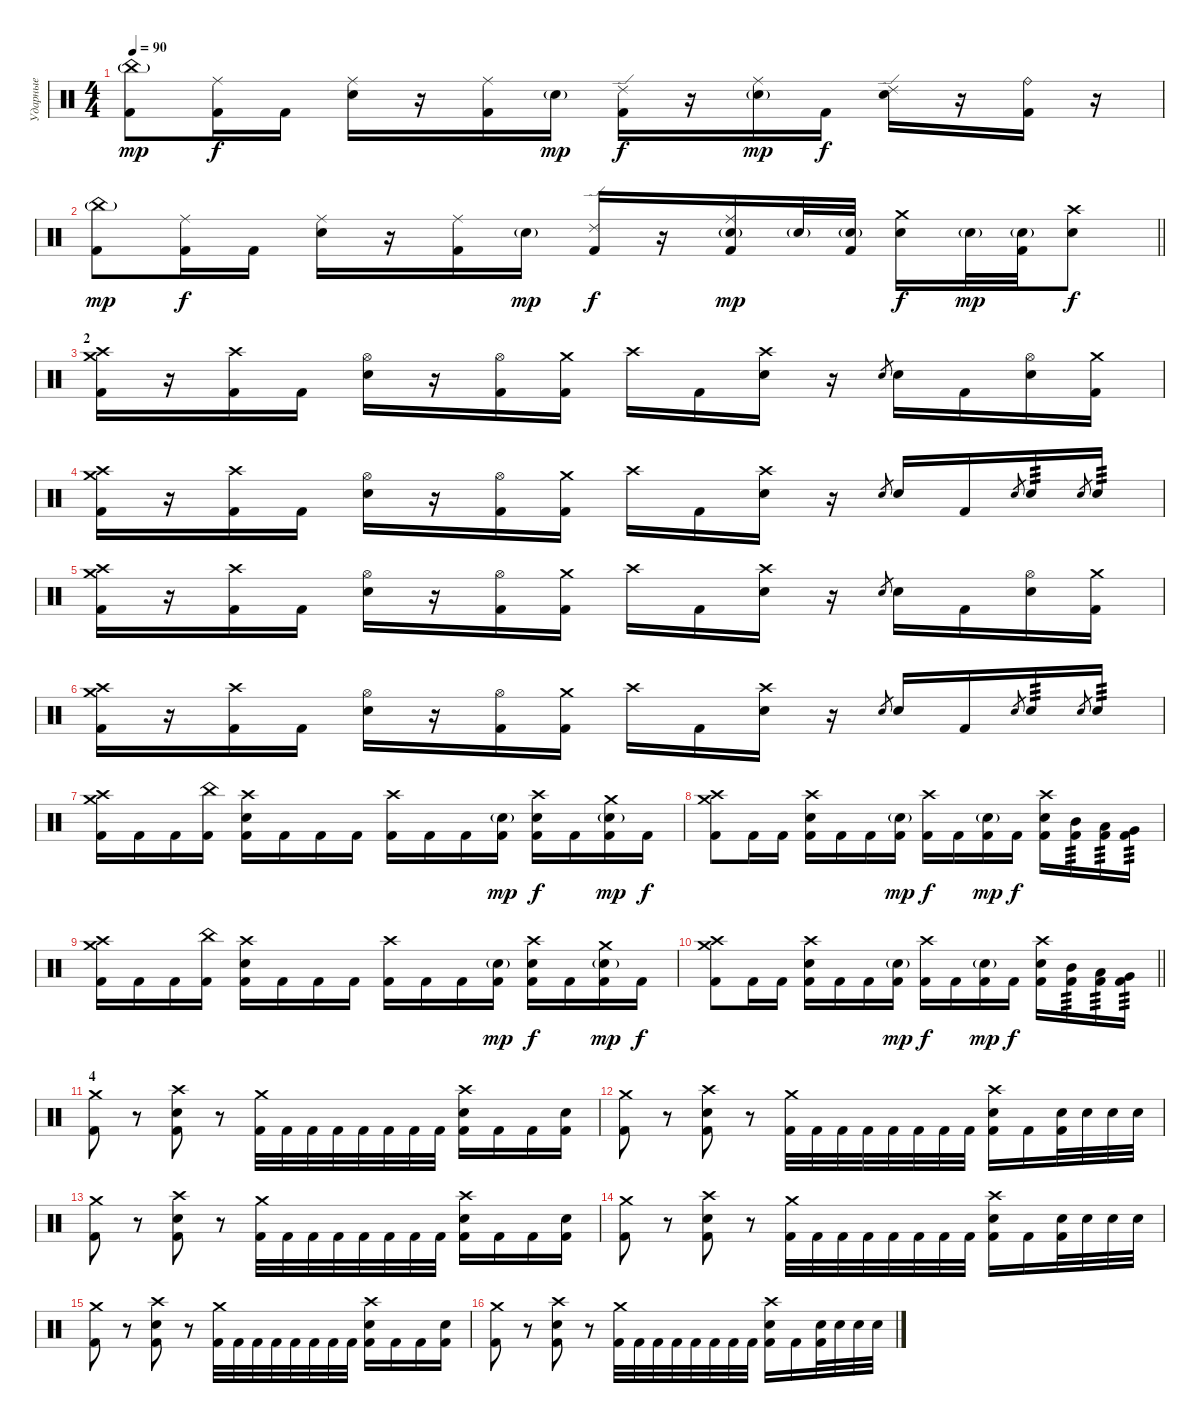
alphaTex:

\track ("Ударные" "Ударные") {instrument percussion}
\staff {score}
\articulation defaults
\ts (4 4)
\tempo 90
\clef neutral
\ks c
("China (hit)"{g} "Kick (hit) 2").8{dy mp} ("Ride (middle)" "Kick (hit) 2").16{dy f} "Kick (hit) 2".16 ("Ride (middle)" "Electric Snare (hit)").16 r.16 ("Kick (hit) 2" "Ride (middle)").16 "Electric Snare (hit)"{g}.16{dy mp} ("Kick (hit) 2" "Ride (edge) 2").16{dy f} r.16 ("Ride (middle)" "Electric Snare (hit)"{g}).16{dy mp} "Kick (hit) 2".16{dy f} ("Electric Snare (hit)" "Ride (edge) 2").16 r.16 ("Kick (hit) 2" "Ride (bell)").16 r.16 |
\barLineRight lightlight
("China (hit)"{g} "Kick (hit) 2").8{dy mp} ("Ride (middle)" "Kick (hit) 2").16{dy f} "Kick (hit) 2".16 ("Ride (middle)" "Electric Snare (hit)").16 r.16 ("Kick (hit) 2" "Ride (middle)").16 "Electric Snare (hit)"{g}.16{dy mp} ("Kick (hit) 2" "Ride (edge) 2").16{dy f} r.16 ("Ride (middle)" "Electric Snare (hit)"{g} "Kick (hit) 2").16{dy mp} "Electric Snare (hit)"{g}.32 ("Electric Snare (hit)"{g} "Kick (hit) 2").32 ("Electric Snare (hit)" "Crash medium (hit)").16{dy f} "Electric Snare (hit)"{g}.32{dy mp} ("Electric Snare (hit)"{g} "Kick (hit) 2").32 ("Electric Snare (hit)" "Crash high (hit)").8{dy f} |
\section ("" "2")
("Kick (hit) 2" "Crash medium (hit)" "Crash high (hit)").16 r.16 ("Kick (hit) 2" "Crash high (hit)").16 "Kick (hit) 2".16 ("Electric Snare (hit)" "Hi-Hat (open)").16 r.16 ("Kick (hit) 2" "Hi-Hat (open)").16 ("Kick (hit) 2" "Crash medium (hit)").16 "Crash high (hit)".16 "Kick (hit) 2".16 ("Electric Snare (hit)" "Crash high (hit)").16 r.16 "Electric Snare (hit)".8{gr} "Electric Snare (hit)".16 "Kick (hit) 2".16 ("Electric Snare (hit)" "Hi-Hat (open)").16 ("Kick (hit) 2" "Crash medium (hit)").16 |
("Kick (hit) 2" "Crash medium (hit)" "Crash high (hit)").16 r.16 ("Kick (hit) 2" "Crash high (hit)").16 "Kick (hit) 2".16 ("Electric Snare (hit)" "Hi-Hat (open)").16 r.16 ("Kick (hit) 2" "Hi-Hat (open)").16 ("Kick (hit) 2" "Crash medium (hit)").16 "Crash high (hit)".16 "Kick (hit) 2".16 ("Electric Snare (hit)" "Crash high (hit)").16 r.16 "Electric Snare (hit)".8{gr} "Electric Snare (hit)".16 "Kick (hit) 2".16 "Electric Snare (hit)".8{gr} "Electric Snare (hit)".16{tp 3} "Electric Snare (hit)".8{gr} "Electric Snare (hit)".16{tp 3} |
("Kick (hit) 2" "Crash medium (hit)" "Crash high (hit)").16 r.16 ("Kick (hit) 2" "Crash high (hit)").16 "Kick (hit) 2".16 ("Electric Snare (hit)" "Hi-Hat (open)").16 r.16 ("Kick (hit) 2" "Hi-Hat (open)").16 ("Kick (hit) 2" "Crash medium (hit)").16 "Crash high (hit)".16 "Kick (hit) 2".16 ("Electric Snare (hit)" "Crash high (hit)").16 r.16 "Electric Snare (hit)".8{gr} "Electric Snare (hit)".16 "Kick (hit) 2".16 ("Electric Snare (hit)" "Hi-Hat (open)").16 ("Kick (hit) 2" "Crash medium (hit)").16 |
("Kick (hit) 2" "Crash medium (hit)" "Crash high (hit)").16 r.16 ("Kick (hit) 2" "Crash high (hit)").16 "Kick (hit) 2".16 ("Electric Snare (hit)" "Hi-Hat (open)").16 r.16 ("Kick (hit) 2" "Hi-Hat (open)").16 ("Kick (hit) 2" "Crash medium (hit)").16 "Crash high (hit)".16 "Kick (hit) 2".16 ("Electric Snare (hit)" "Crash high (hit)").16 r.16 "Electric Snare (hit)".8{gr} "Electric Snare (hit)".16 "Kick (hit) 2".16 "Electric Snare (hit)".8{gr} "Electric Snare (hit)".16{tp 3} "Electric Snare (hit)".8{gr} "Electric Snare (hit)".16{tp 3} |
("Kick (hit) 2" "Crash medium (hit)" "Crash high (hit)").16 "Kick (hit) 2".16 "Kick (hit) 2".16 ("Kick (hit) 2" "China (hit)").16 ("Kick (hit) 2" "Electric Snare (hit)" "Crash high (hit)").16 "Kick (hit) 2".16 "Kick (hit) 2".16 "Kick (hit) 2".16 ("Kick (hit) 2" "Crash high (hit)").16 "Kick (hit) 2".16 "Kick (hit) 2".16 ("Kick (hit) 2" "Electric Snare (hit)"{g}).16{dy mp} ("Kick (hit) 2" "Electric Snare (hit)" "Crash high (hit)").16{dy f} "Kick (hit) 2".16 ("Kick (hit) 2" "Crash medium (hit)" "Electric Snare (hit)"{g}).16{dy mp} "Kick (hit) 2".16{dy f} |
("Kick (hit) 2" "Crash medium (hit)" "Crash high (hit)").8 "Kick (hit) 2".16 "Kick (hit) 2".16 ("Kick (hit) 2" "Crash high (hit)" "Electric Snare (hit)").16 "Kick (hit) 2".16 "Kick (hit) 2".16 ("Kick (hit) 2" "Electric Snare (hit)"{g}).16{dy mp} ("Kick (hit) 2" "Crash high (hit)").16{dy f} "Kick (hit) 2".16 ("Kick (hit) 2" "Electric Snare (hit)"{g}).16{dy mp} "Kick (hit) 2".16{dy f} ("Kick (hit) 2" "Crash high (hit)" "Electric Snare (hit)").16 ("Kick (hit) 2" "Mid Tom (hit)").16{tp 3} ("Kick (hit) 2" "Low Tom (hit)").16{tp 3} ("Kick (hit) 2" "Very Low Tom (hit)").16{tp 3} |
("Kick (hit) 2" "Crash medium (hit)" "Crash high (hit)").16 "Kick (hit) 2".16 "Kick (hit) 2".16 ("Kick (hit) 2" "China (hit)").16 ("Kick (hit) 2" "Electric Snare (hit)" "Crash high (hit)").16 "Kick (hit) 2".16 "Kick (hit) 2".16 "Kick (hit) 2".16 ("Kick (hit) 2" "Crash high (hit)").16 "Kick (hit) 2".16 "Kick (hit) 2".16 ("Kick (hit) 2" "Electric Snare (hit)"{g}).16{dy mp} ("Kick (hit) 2" "Electric Snare (hit)" "Crash high (hit)").16{dy f} "Kick (hit) 2".16 ("Kick (hit) 2" "Crash medium (hit)" "Electric Snare (hit)"{g}).16{dy mp} "Kick (hit) 2".16{dy f} |
\barLineRight lightlight
("Kick (hit) 2" "Crash medium (hit)" "Crash high (hit)").8 "Kick (hit) 2".16 "Kick (hit) 2".16 ("Kick (hit) 2" "Crash high (hit)" "Electric Snare (hit)").16 "Kick (hit) 2".16 "Kick (hit) 2".16 ("Kick (hit) 2" "Electric Snare (hit)"{g}).16{dy mp} ("Kick (hit) 2" "Crash high (hit)").16{dy f} "Kick (hit) 2".16 ("Kick (hit) 2" "Electric Snare (hit)"{g}).16{dy mp} "Kick (hit) 2".16{dy f} ("Kick (hit) 2" "Crash high (hit)" "Electric Snare (hit)").16 ("Kick (hit) 2" "Mid Tom (hit)").16{tp 3} ("Kick (hit) 2" "Low Tom (hit)").16{tp 3} ("Kick (hit) 2" "Very Low Tom (hit)").16{tp 3} |
\section ("" "4")
("Kick (hit) 2" "Crash medium (hit)").8 r.8 ("Kick (hit) 2" "Electric Snare (hit)" "Crash high (hit)").8 r.8 ("Kick (hit) 2" "Crash medium (hit)").32 "Kick (hit) 2".32 "Kick (hit) 2".32 "Kick (hit) 2".32 "Kick (hit) 2".32 "Kick (hit) 2".32 "Kick (hit) 2".32 "Kick (hit) 2".32 ("Kick (hit) 2" "Electric Snare (hit)" "Crash high (hit)").16 "Kick (hit) 2".16 "Kick (hit) 2".16 ("Kick (hit) 2" "Electric Snare (hit)").16 |
("Kick (hit) 2" "Crash medium (hit)").8 r.8 ("Kick (hit) 2" "Electric Snare (hit)" "Crash high (hit)").8 r.8 ("Kick (hit) 2" "Crash medium (hit)").32 "Kick (hit) 2".32 "Kick (hit) 2".32 "Kick (hit) 2".32 "Kick (hit) 2".32 "Kick (hit) 2".32 "Kick (hit) 2".32 "Kick (hit) 2".32 ("Kick (hit) 2" "Electric Snare (hit)" "Crash high (hit)").16 "Kick (hit) 2".16 ("Kick (hit) 2" "Electric Snare (hit)").32 "Electric Snare (hit)".32 "Electric Snare (hit)".32 "Electric Snare (hit)".32 |
("Kick (hit) 2" "Crash medium (hit)").8 r.8 ("Kick (hit) 2" "Electric Snare (hit)" "Crash high (hit)").8 r.8 ("Kick (hit) 2" "Crash medium (hit)").32 "Kick (hit) 2".32 "Kick (hit) 2".32 "Kick (hit) 2".32 "Kick (hit) 2".32 "Kick (hit) 2".32 "Kick (hit) 2".32 "Kick (hit) 2".32 ("Kick (hit) 2" "Electric Snare (hit)" "Crash high (hit)").16 "Kick (hit) 2".16 "Kick (hit) 2".16 ("Kick (hit) 2" "Electric Snare (hit)").16 |
("Kick (hit) 2" "Crash medium (hit)").8 r.8 ("Kick (hit) 2" "Electric Snare (hit)" "Crash high (hit)").8 r.8 ("Kick (hit) 2" "Crash medium (hit)").32 "Kick (hit) 2".32 "Kick (hit) 2".32 "Kick (hit) 2".32 "Kick (hit) 2".32 "Kick (hit) 2".32 "Kick (hit) 2".32 "Kick (hit) 2".32 ("Kick (hit) 2" "Electric Snare (hit)" "Crash high (hit)").16 "Kick (hit) 2".16 ("Kick (hit) 2" "Electric Snare (hit)").32 "Electric Snare (hit)".32 "Electric Snare (hit)".32 "Electric Snare (hit)".32 |
("Kick (hit) 2" "Crash medium (hit)").8 r.8 ("Kick (hit) 2" "Electric Snare (hit)" "Crash high (hit)").8 r.8 ("Kick (hit) 2" "Crash medium (hit)").32 "Kick (hit) 2".32 "Kick (hit) 2".32 "Kick (hit) 2".32 "Kick (hit) 2".32 "Kick (hit) 2".32 "Kick (hit) 2".32 "Kick (hit) 2".32 ("Kick (hit) 2" "Electric Snare (hit)" "Crash high (hit)").16 "Kick (hit) 2".16 "Kick (hit) 2".16 ("Kick (hit) 2" "Electric Snare (hit)").16 |
("Kick (hit) 2" "Crash medium (hit)").8 r.8 ("Kick (hit) 2" "Electric Snare (hit)" "Crash high (hit)").8 r.8 ("Kick (hit) 2" "Crash medium (hit)").32 "Kick (hit) 2".32 "Kick (hit) 2".32 "Kick (hit) 2".32 "Kick (hit) 2".32 "Kick (hit) 2".32 "Kick (hit) 2".32 "Kick (hit) 2".32 ("Kick (hit) 2" "Electric Snare (hit)" "Crash high (hit)").16 "Kick (hit) 2".16 ("Kick (hit) 2" "Electric Snare (hit)").32 "Electric Snare (hit)".32 "Electric Snare (hit)".32 "Electric Snare (hit)".32
